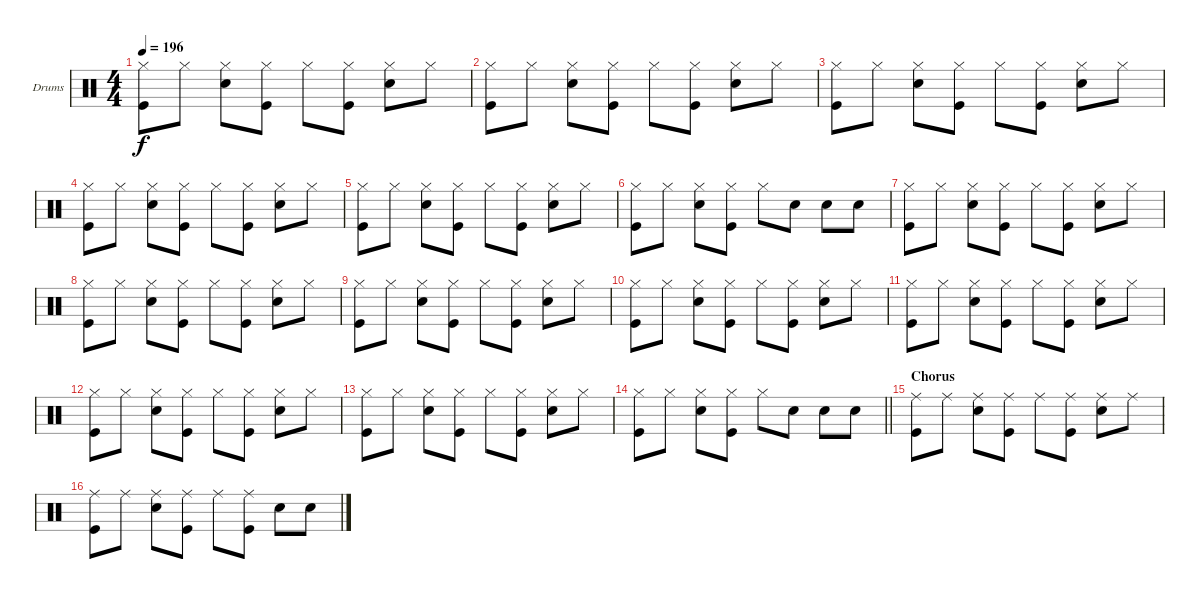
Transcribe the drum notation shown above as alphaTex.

\bracketExtendMode groupsimilarinstruments
\firstSystemTrackNameOrientation horizontal
\otherSystemsTrackNameOrientation horizontal
\track ("Fabrizio" "Drums") {instrument percussion}
\staff {score}
\articulation defaults
\ts (4 4)
\tempo 196
\clef neutral
\ks c
("Hi-Hat (closed)" "Kick (hit)").8{dy f} "Hi-Hat (closed)".8 ("Snare (hit) 2" "Hi-Hat (closed)").8 ("Kick (hit)" "Hi-Hat (closed)").8 "Hi-Hat (closed)".8 ("Kick (hit)" "Hi-Hat (closed)").8 ("Snare (hit) 2" "Hi-Hat (closed)").8 "Hi-Hat (closed)".8 |
("Hi-Hat (closed)" "Kick (hit)").8 "Hi-Hat (closed)".8 ("Snare (hit) 2" "Hi-Hat (closed)").8 ("Kick (hit)" "Hi-Hat (closed)").8 "Hi-Hat (closed)".8 ("Kick (hit)" "Hi-Hat (closed)").8 ("Snare (hit) 2" "Hi-Hat (closed)").8 "Hi-Hat (closed)".8 |
("Hi-Hat (closed)" "Kick (hit)").8 "Hi-Hat (closed)".8 ("Snare (hit) 2" "Hi-Hat (closed)").8 ("Kick (hit)" "Hi-Hat (closed)").8 "Hi-Hat (closed)".8 ("Kick (hit)" "Hi-Hat (closed)").8 ("Snare (hit) 2" "Hi-Hat (closed)").8 "Hi-Hat (closed)".8 |
("Hi-Hat (closed)" "Kick (hit)").8 "Hi-Hat (closed)".8 ("Snare (hit) 2" "Hi-Hat (closed)").8 ("Kick (hit)" "Hi-Hat (closed)").8 "Hi-Hat (closed)".8 ("Kick (hit)" "Hi-Hat (closed)").8 ("Snare (hit) 2" "Hi-Hat (closed)").8 "Hi-Hat (closed)".8 |
("Hi-Hat (closed)" "Kick (hit)").8 "Hi-Hat (closed)".8 ("Snare (hit) 2" "Hi-Hat (closed)").8 ("Kick (hit)" "Hi-Hat (closed)").8 "Hi-Hat (closed)".8 ("Kick (hit)" "Hi-Hat (closed)").8 ("Snare (hit) 2" "Hi-Hat (closed)").8 "Hi-Hat (closed)".8 |
("Hi-Hat (closed)" "Kick (hit)").8 "Hi-Hat (closed)".8 ("Snare (hit) 2" "Hi-Hat (closed)").8 ("Kick (hit)" "Hi-Hat (closed)").8 "Hi-Hat (closed)".8 "Snare (hit) 2".8 "Snare (hit) 2".8 "Snare (hit) 2".8 |
("Hi-Hat (closed)" "Kick (hit)").8 "Hi-Hat (closed)".8 ("Snare (hit) 2" "Hi-Hat (closed)").8 ("Kick (hit)" "Hi-Hat (closed)").8 "Hi-Hat (closed)".8 ("Kick (hit)" "Hi-Hat (closed)").8 ("Snare (hit) 2" "Hi-Hat (closed)").8 "Hi-Hat (closed)".8 |
("Hi-Hat (closed)" "Kick (hit)").8 "Hi-Hat (closed)".8 ("Snare (hit) 2" "Hi-Hat (closed)").8 ("Kick (hit)" "Hi-Hat (closed)").8 "Hi-Hat (closed)".8 ("Kick (hit)" "Hi-Hat (closed)").8 ("Snare (hit) 2" "Hi-Hat (closed)").8 "Hi-Hat (closed)".8 |
("Hi-Hat (closed)" "Kick (hit)").8 "Hi-Hat (closed)".8 ("Snare (hit) 2" "Hi-Hat (closed)").8 ("Kick (hit)" "Hi-Hat (closed)").8 "Hi-Hat (closed)".8 ("Kick (hit)" "Hi-Hat (closed)").8 ("Snare (hit) 2" "Hi-Hat (closed)").8 "Hi-Hat (closed)".8 |
("Hi-Hat (closed)" "Kick (hit)").8 "Hi-Hat (closed)".8 ("Snare (hit) 2" "Hi-Hat (closed)").8 ("Kick (hit)" "Hi-Hat (closed)").8 "Hi-Hat (closed)".8 ("Kick (hit)" "Hi-Hat (closed)").8 ("Snare (hit) 2" "Hi-Hat (closed)").8 "Hi-Hat (closed)".8 |
("Hi-Hat (closed)" "Kick (hit)").8 "Hi-Hat (closed)".8 ("Snare (hit) 2" "Hi-Hat (closed)").8 ("Kick (hit)" "Hi-Hat (closed)").8 "Hi-Hat (closed)".8 ("Kick (hit)" "Hi-Hat (closed)").8 ("Snare (hit) 2" "Hi-Hat (closed)").8 "Hi-Hat (closed)".8 |
("Hi-Hat (closed)" "Kick (hit)").8 "Hi-Hat (closed)".8 ("Snare (hit) 2" "Hi-Hat (closed)").8 ("Kick (hit)" "Hi-Hat (closed)").8 "Hi-Hat (closed)".8 ("Kick (hit)" "Hi-Hat (closed)").8 ("Snare (hit) 2" "Hi-Hat (closed)").8 "Hi-Hat (closed)".8 |
("Hi-Hat (closed)" "Kick (hit)").8 "Hi-Hat (closed)".8 ("Snare (hit) 2" "Hi-Hat (closed)").8 ("Kick (hit)" "Hi-Hat (closed)").8 "Hi-Hat (closed)".8 ("Kick (hit)" "Hi-Hat (closed)").8 ("Snare (hit) 2" "Hi-Hat (closed)").8 "Hi-Hat (closed)".8 |
\barLineRight lightlight
("Hi-Hat (closed)" "Kick (hit)").8 "Hi-Hat (closed)".8 ("Snare (hit) 2" "Hi-Hat (closed)").8 ("Kick (hit)" "Hi-Hat (closed)").8 "Hi-Hat (closed)".8 "Snare (hit) 2".8 "Snare (hit) 2".8 "Snare (hit) 2".8 |
\section ("" "Chorus")
("Kick (hit)" "Ride (middle)").8 "Ride (middle)".8 ("Snare (hit) 2" "Ride (middle)").8 ("Kick (hit)" "Ride (middle)").8 "Ride (middle)".8 ("Kick (hit)" "Ride (middle)").8 ("Snare (hit) 2" "Ride (middle)").8 "Ride (middle)".8 |
("Kick (hit)" "Ride (middle)").8 "Ride (middle)".8 ("Snare (hit) 2" "Ride (middle)").8 ("Kick (hit)" "Ride (middle)").8 "Ride (middle)".8 ("Kick (hit)" "Ride (middle)").8 "Snare (hit) 2".8 "Snare (hit) 2".8
